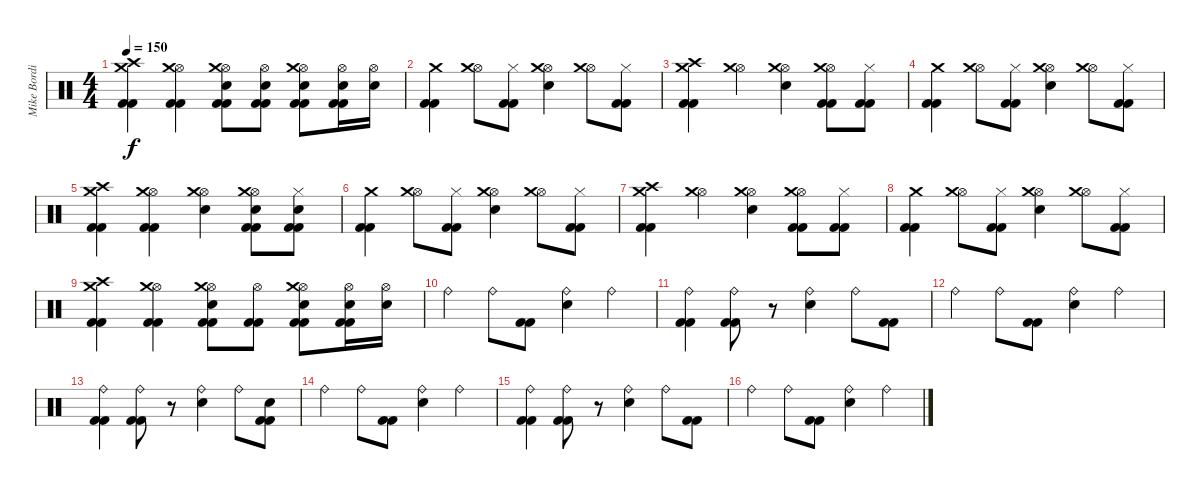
\track ("Mike Bordin" "Mike Bordi") {instrument percussion}
\staff {score}
\articulation defaults
\ts (4 4)
\tempo 150
\clef neutral
\ks c
("Crash high (hit)" "Crash medium (hit)" "Kick (hit) 2" "Kick (hit) 2").4{dy f} ("Hi-Hat (open)" "Crash medium (hit)" "Kick (hit) 2" "Kick (hit) 2").4 ("Hi-Hat (open)" "Crash medium (hit)" "Electric Snare (hit)" "Kick (hit) 2" "Kick (hit) 2").8 ("Hi-Hat (open)" "Electric Snare (hit)" "Kick (hit) 2" "Kick (hit) 2").8 ("Hi-Hat (open)" "Crash medium (hit)" "Electric Snare (hit)" "Kick (hit) 2" "Kick (hit) 2").8 ("Hi-Hat (open)" "Electric Snare (hit)" "Kick (hit) 2" "Kick (hit) 2").16 ("Hi-Hat (open)" "Electric Snare (hit)").16 |
("Crash medium (hit)" "Kick (hit) 2" "Kick (hit) 2").4 ("Hi-Hat (open)" "Crash medium (hit)").8 ("Hi-Hat (closed)" "Kick (hit) 2" "Kick (hit) 2").8 ("Hi-Hat (open)" "Crash medium (hit)" "Electric Snare (hit)").4 ("Hi-Hat (open)" "Crash medium (hit)").8 ("Hi-Hat (closed)" "Kick (hit) 2" "Kick (hit) 2").8 |
("Crash high (hit)" "Crash medium (hit)" "Kick (hit) 2" "Kick (hit) 2").4 ("Hi-Hat (open)" "Crash medium (hit)").4 ("Hi-Hat (open)" "Crash medium (hit)" "Electric Snare (hit)").4 ("Hi-Hat (open)" "Crash medium (hit)" "Kick (hit) 2" "Kick (hit) 2").8 ("Hi-Hat (closed)" "Kick (hit) 2" "Kick (hit) 2").8 |
("Crash medium (hit)" "Kick (hit) 2" "Kick (hit) 2").4 ("Hi-Hat (open)" "Crash medium (hit)").8 ("Hi-Hat (closed)" "Kick (hit) 2" "Kick (hit) 2").8 ("Hi-Hat (open)" "Crash medium (hit)" "Electric Snare (hit)").4 ("Hi-Hat (open)" "Crash medium (hit)").8 ("Hi-Hat (closed)" "Kick (hit) 2" "Kick (hit) 2").8 |
("Crash high (hit)" "Crash medium (hit)" "Kick (hit) 2" "Kick (hit) 2").4 ("Hi-Hat (open)" "Crash medium (hit)" "Kick (hit) 2" "Kick (hit) 2").4 ("Hi-Hat (open)" "Crash medium (hit)" "Electric Snare (hit)").4 ("Hi-Hat (open)" "Crash medium (hit)" "Electric Snare (hit)" "Kick (hit) 2" "Kick (hit) 2").8 ("Hi-Hat (closed)" "Electric Snare (hit)" "Kick (hit) 2" "Kick (hit) 2").8 |
("Crash medium (hit)" "Kick (hit) 2" "Kick (hit) 2").4 ("Hi-Hat (open)" "Crash medium (hit)").8 ("Hi-Hat (closed)" "Kick (hit) 2" "Kick (hit) 2").8 ("Hi-Hat (open)" "Crash medium (hit)" "Electric Snare (hit)").4 ("Hi-Hat (open)" "Crash medium (hit)").8 ("Hi-Hat (closed)" "Kick (hit) 2" "Kick (hit) 2").8 |
("Crash high (hit)" "Crash medium (hit)" "Kick (hit) 2" "Kick (hit) 2").4 ("Hi-Hat (open)" "Crash medium (hit)").4 ("Hi-Hat (open)" "Crash medium (hit)" "Electric Snare (hit)").4 ("Hi-Hat (open)" "Crash medium (hit)" "Kick (hit) 2" "Kick (hit) 2").8 ("Hi-Hat (closed)" "Kick (hit) 2" "Kick (hit) 2").8 |
("Crash medium (hit)" "Kick (hit) 2" "Kick (hit) 2").4 ("Hi-Hat (open)" "Crash medium (hit)").8 ("Hi-Hat (closed)" "Kick (hit) 2" "Kick (hit) 2").8 ("Hi-Hat (open)" "Crash medium (hit)" "Electric Snare (hit)").4 ("Hi-Hat (open)" "Crash medium (hit)").8 ("Hi-Hat (closed)" "Kick (hit) 2" "Kick (hit) 2").8 |
("Crash high (hit)" "Crash medium (hit)" "Kick (hit) 2" "Kick (hit) 2").4 ("Hi-Hat (open)" "Crash medium (hit)" "Kick (hit) 2" "Kick (hit) 2").4 ("Hi-Hat (open)" "Crash medium (hit)" "Electric Snare (hit)" "Kick (hit) 2" "Kick (hit) 2").8 ("Hi-Hat (open)" "Kick (hit) 2" "Kick (hit) 2").8 ("Hi-Hat (open)" "Crash medium (hit)" "Electric Snare (hit)" "Kick (hit) 2" "Kick (hit) 2").8 ("Hi-Hat (open)" "Electric Snare (hit)" "Kick (hit) 2" "Kick (hit) 2").16 ("Hi-Hat (open)" "Electric Snare (hit)").16 |
"Ride (bell)".4 "Ride (bell)".8 ("Kick (hit) 2" "Kick (hit) 2").8 ("Ride (bell)" "Electric Snare (hit)").4 "Ride (bell)".4 |
("Ride (bell)" "Kick (hit) 2" "Kick (hit) 2").4 ("Ride (bell)" "Kick (hit) 2" "Kick (hit) 2").8 r.8 ("Ride (bell)" "Electric Snare (hit)").4 "Ride (bell)".8 ("Kick (hit) 2" "Kick (hit) 2").8 |
"Ride (bell)".4 "Ride (bell)".8 ("Kick (hit) 2" "Kick (hit) 2").8 ("Ride (bell)" "Electric Snare (hit)").4 "Ride (bell)".4 |
("Ride (bell)" "Kick (hit) 2" "Kick (hit) 2").4 ("Ride (bell)" "Kick (hit) 2" "Kick (hit) 2").8 r.8 ("Ride (bell)" "Electric Snare (hit)").4 "Ride (bell)".8 ("Electric Snare (hit)" "Kick (hit) 2" "Kick (hit) 2").8 |
"Ride (bell)".4 "Ride (bell)".8 ("Kick (hit) 2" "Kick (hit) 2").8 ("Ride (bell)" "Electric Snare (hit)").4 "Ride (bell)".4 |
("Ride (bell)" "Kick (hit) 2" "Kick (hit) 2").4 ("Ride (bell)" "Kick (hit) 2" "Kick (hit) 2").8 r.8 ("Ride (bell)" "Electric Snare (hit)").4 "Ride (bell)".8 ("Kick (hit) 2" "Kick (hit) 2").8 |
"Ride (bell)".4 "Ride (bell)".8 ("Kick (hit) 2" "Kick (hit) 2").8 ("Ride (bell)" "Electric Snare (hit)").4 "Ride (bell)".4
